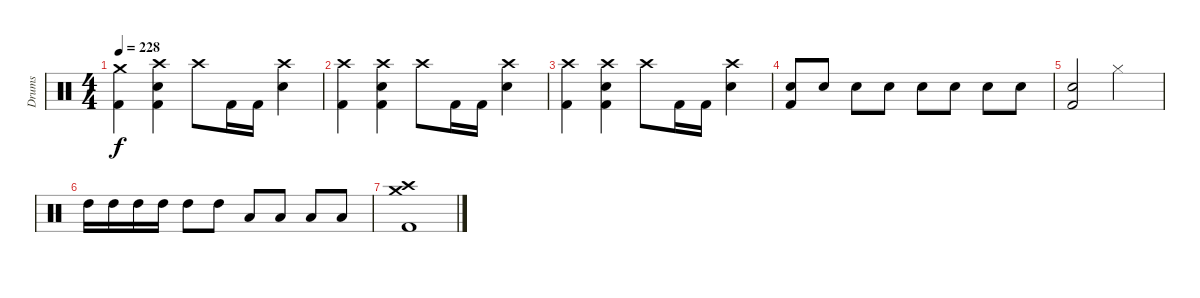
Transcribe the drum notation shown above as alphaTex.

\track ("Drums" "Drums") {instrument percussion}
\staff {score}
\articulation defaults
\ts (4 4)
\tempo 228
\clef neutral
\ks c
("Crash medium (hit)" "Kick (hit) 2").4{dy f} ("Electric Snare (hit)" "Kick (hit) 2" "Crash high (hit)").4 "Crash high (hit)".8 "Kick (hit) 2".16 "Kick (hit) 2".16 ("Crash high (hit)" "Electric Snare (hit)").4 |
("Crash high (hit)" "Kick (hit) 2").4 ("Electric Snare (hit)" "Kick (hit) 2" "Crash high (hit)").4 "Crash high (hit)".8 "Kick (hit) 2".16 "Kick (hit) 2".16 ("Crash high (hit)" "Electric Snare (hit)").4 |
("Crash high (hit)" "Kick (hit) 2").4 ("Electric Snare (hit)" "Kick (hit) 2" "Crash high (hit)").4 "Crash high (hit)".8 "Kick (hit) 2".16 "Kick (hit) 2".16 ("Crash high (hit)" "Electric Snare (hit)").4 |
("Electric Snare (hit)" "Kick (hit) 2").8 "Electric Snare (hit)".8 "Electric Snare (hit)".8 "Electric Snare (hit)".8 "Electric Snare (hit)".8 "Electric Snare (hit)".8 "Electric Snare (hit)".8 "Electric Snare (hit)".8 |
("Electric Snare (hit)" "Kick (hit) 2").2 "Hi-Hat (closed)".2 |
"High Tom (hit)".16 "High Tom (hit)".16 "High Tom (hit)".16 "High Tom (hit)".16 "High Tom (hit)".8 "High Tom (hit)".8 "Low Tom (hit)".8 "Low Tom (hit)".8 "Low Floor Tom (hit)".8 "Low Floor Tom (hit)".8 |
("Crash high (hit)" "Crash medium (hit)" "Kick (hit) 2").1
